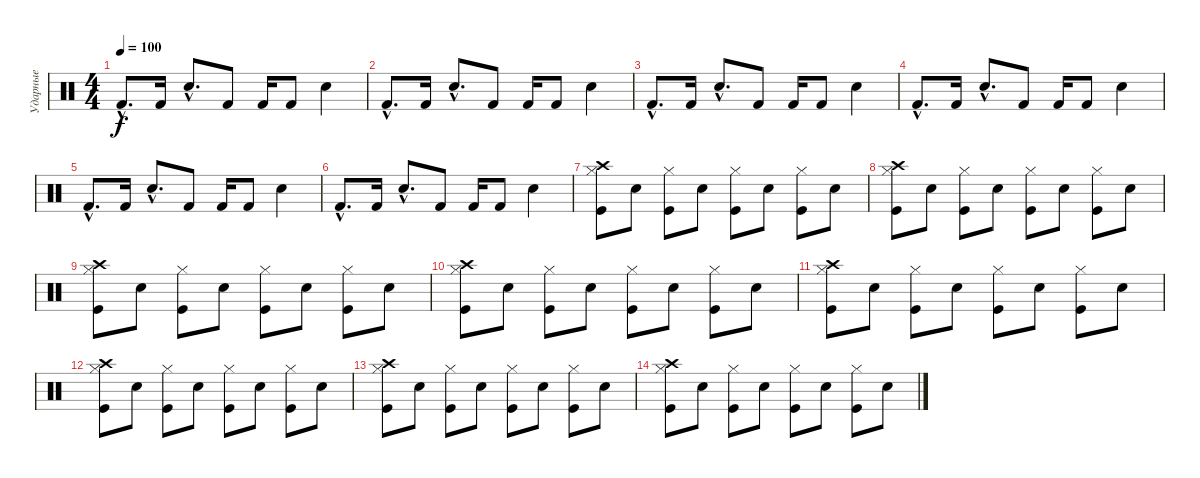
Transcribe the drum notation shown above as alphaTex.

\track ("Ударные" "Ударные") {instrument percussion}
\staff {score}
\articulation defaults
\ts (4 4)
\tempo 100
\clef neutral
\ks c "Kick (hit) 2"{hac}.8{d dy f} "Kick (hit) 2".16 "Snare (hit) 2"{hac}.8{d} "Kick (hit) 2".8 "Kick (hit) 2".16 "Kick (hit) 2".8 "Snare (hit) 2".4
|
"Kick (hit) 2"{hac}.8{d} "Kick (hit) 2".16 "Snare (hit) 2"{hac}.8{d} "Kick (hit) 2".8 "Kick (hit) 2".16 "Kick (hit) 2".8 "Snare (hit) 2".4 |
"Kick (hit) 2"{hac}.8{d} "Kick (hit) 2".16 "Snare (hit) 2"{hac}.8{d} "Kick (hit) 2".8 "Kick (hit) 2".16 "Kick (hit) 2".8 "Snare (hit) 2".4 |
"Kick (hit) 2"{hac}.8{d} "Kick (hit) 2".16 "Snare (hit) 2"{hac}.8{d} "Kick (hit) 2".8 "Kick (hit) 2".16 "Kick (hit) 2".8 "Snare (hit) 2".4 |
"Kick (hit) 2"{hac}.8{d} "Kick (hit) 2".16 "Snare (hit) 2"{hac}.8{d} "Kick (hit) 2".8 "Kick (hit) 2".16 "Kick (hit) 2".8 "Snare (hit) 2".4 |
"Kick (hit) 2"{hac}.8{d} "Kick (hit) 2".16 "Snare (hit) 2"{hac}.8{d} "Kick (hit) 2".8 "Kick (hit) 2".16 "Kick (hit) 2".8 "Snare (hit) 2".4 |
("Crash high (hit)" "Hi-Hat (closed)" "Kick (hit)").8 "Electric Snare (hit)".8 ("Hi-Hat (closed)" "Kick (hit)").8 "Electric Snare (hit)".8 ("Hi-Hat (closed)" "Kick (hit)").8 "Electric Snare (hit)".8 ("Hi-Hat (closed)" "Kick (hit)").8 "Electric Snare (hit)".8 |
("Crash high (hit)" "Hi-Hat (closed)" "Kick (hit)").8 "Electric Snare (hit)".8 ("Hi-Hat (closed)" "Kick (hit)").8 "Electric Snare (hit)".8 ("Hi-Hat (closed)" "Kick (hit)").8 "Electric Snare (hit)".8 ("Hi-Hat (closed)" "Kick (hit)").8 "Electric Snare (hit)".8 |
("Crash high (hit)" "Hi-Hat (closed)" "Kick (hit)").8 "Electric Snare (hit)".8 ("Hi-Hat (closed)" "Kick (hit)").8 "Electric Snare (hit)".8 ("Hi-Hat (closed)" "Kick (hit)").8 "Electric Snare (hit)".8 ("Hi-Hat (closed)" "Kick (hit)").8 "Electric Snare (hit)".8 |
("Crash high (hit)" "Hi-Hat (closed)" "Kick (hit)").8 "Electric Snare (hit)".8 ("Hi-Hat (closed)" "Kick (hit)").8 "Electric Snare (hit)".8 ("Hi-Hat (closed)" "Kick (hit)").8 "Electric Snare (hit)".8 ("Hi-Hat (closed)" "Kick (hit)").8 "Electric Snare (hit)".8 |
("Crash high (hit)" "Hi-Hat (closed)" "Kick (hit)").8 "Electric Snare (hit)".8 ("Hi-Hat (closed)" "Kick (hit)").8 "Electric Snare (hit)".8 ("Hi-Hat (closed)" "Kick (hit)").8 "Electric Snare (hit)".8 ("Hi-Hat (closed)" "Kick (hit)").8 "Electric Snare (hit)".8 |
("Crash high (hit)" "Hi-Hat (closed)" "Kick (hit)").8 "Electric Snare (hit)".8 ("Hi-Hat (closed)" "Kick (hit)").8 "Electric Snare (hit)".8 ("Hi-Hat (closed)" "Kick (hit)").8 "Electric Snare (hit)".8 ("Hi-Hat (closed)" "Kick (hit)").8 "Electric Snare (hit)".8 |
("Crash high (hit)" "Hi-Hat (closed)" "Kick (hit)").8 "Electric Snare (hit)".8 ("Hi-Hat (closed)" "Kick (hit)").8 "Electric Snare (hit)".8 ("Hi-Hat (closed)" "Kick (hit)").8 "Electric Snare (hit)".8 ("Hi-Hat (closed)" "Kick (hit)").8 "Electric Snare (hit)".8 |
("Crash high (hit)" "Hi-Hat (closed)" "Kick (hit)").8 "Electric Snare (hit)".8 ("Hi-Hat (closed)" "Kick (hit)").8 "Electric Snare (hit)".8 ("Hi-Hat (closed)" "Kick (hit)").8 "Electric Snare (hit)".8 ("Hi-Hat (closed)" "Kick (hit)").8 "Electric Snare (hit)".8
